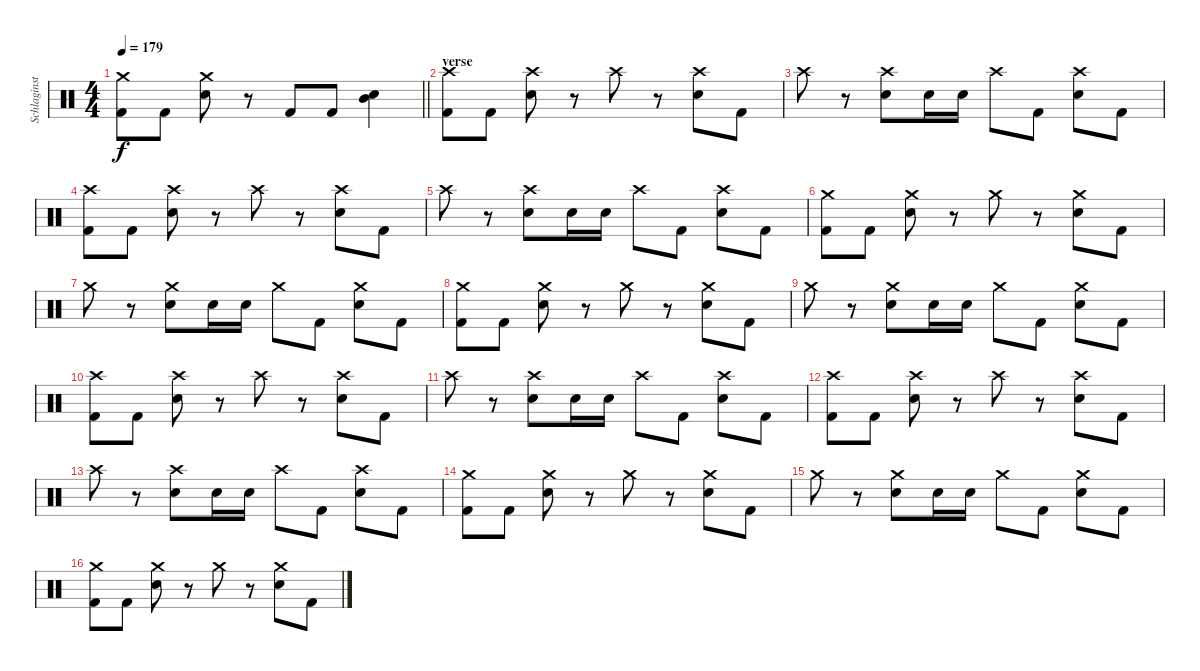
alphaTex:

\track ("Schlaginstrumente - Auswahl" "Schlaginst") {instrument percussion}
\staff {score}
\articulation defaults
\ts (4 4)
\tempo 179
\clef neutral
\barLineRight lightlight
\ks c
("Kick (hit) 2" "Crash medium (hit)").8{dy f} "Kick (hit) 2".8 ("Crash medium (hit)" "Electric Snare (hit)").8 r.8 "Kick (hit) 2".8 "Kick (hit) 2".8 ("Mid Tom (hit)" "Electric Snare (hit)").4 |
\section ("" "verse")
("Crash high (hit)" "Kick (hit) 2").8 "Kick (hit) 2".8 ("Crash high (hit)" "Electric Snare (hit)").8 r.8 "Crash high (hit)".8 r.8 ("Crash high (hit)" "Electric Snare (hit)").8 "Kick (hit) 2".8 |
"Crash high (hit)".8 r.8 ("Crash high (hit)" "Electric Snare (hit)").8 "Electric Snare (hit)".16 "Electric Snare (hit)".16 "Crash high (hit)".8 "Kick (hit) 2".8 ("Crash high (hit)" "Electric Snare (hit)").8 "Kick (hit) 2".8 |
("Crash high (hit)" "Kick (hit) 2").8 "Kick (hit) 2".8 ("Crash high (hit)" "Electric Snare (hit)").8 r.8 "Crash high (hit)".8 r.8 ("Crash high (hit)" "Electric Snare (hit)").8 "Kick (hit) 2".8 |
"Crash high (hit)".8 r.8 ("Crash high (hit)" "Electric Snare (hit)").8 "Electric Snare (hit)".16 "Electric Snare (hit)".16 "Crash high (hit)".8 "Kick (hit) 2".8 ("Crash high (hit)" "Electric Snare (hit)").8 "Kick (hit) 2".8 |
("Crash medium (hit)" "Kick (hit) 2").8 "Kick (hit) 2".8 ("Crash medium (hit)" "Electric Snare (hit)").8 r.8 "Crash medium (hit)".8 r.8 ("Crash medium (hit)" "Electric Snare (hit)").8 "Kick (hit) 2".8 |
"Crash medium (hit)".8 r.8 ("Crash medium (hit)" "Electric Snare (hit)").8 "Electric Snare (hit)".16 "Electric Snare (hit)".16 "Crash medium (hit)".8 "Kick (hit) 2".8 ("Crash medium (hit)" "Electric Snare (hit)").8 "Kick (hit) 2".8 |
("Crash medium (hit)" "Kick (hit) 2").8 "Kick (hit) 2".8 ("Crash medium (hit)" "Electric Snare (hit)").8 r.8 "Crash medium (hit)".8 r.8 ("Crash medium (hit)" "Electric Snare (hit)").8 "Kick (hit) 2".8 |
"Crash medium (hit)".8 r.8 ("Crash medium (hit)" "Electric Snare (hit)").8 "Electric Snare (hit)".16 "Electric Snare (hit)".16 "Crash medium (hit)".8 "Kick (hit) 2".8 ("Crash medium (hit)" "Electric Snare (hit)").8 "Kick (hit) 2".8 |
("Crash high (hit)" "Kick (hit) 2").8 "Kick (hit) 2".8 ("Crash high (hit)" "Electric Snare (hit)").8 r.8 "Crash high (hit)".8 r.8 ("Crash high (hit)" "Electric Snare (hit)").8 "Kick (hit) 2".8 |
"Crash high (hit)".8 r.8 ("Crash high (hit)" "Electric Snare (hit)").8 "Electric Snare (hit)".16 "Electric Snare (hit)".16 "Crash high (hit)".8 "Kick (hit) 2".8 ("Crash high (hit)" "Electric Snare (hit)").8 "Kick (hit) 2".8 |
("Crash high (hit)" "Kick (hit) 2").8 "Kick (hit) 2".8 ("Crash high (hit)" "Electric Snare (hit)").8 r.8 "Crash high (hit)".8 r.8 ("Crash high (hit)" "Electric Snare (hit)").8 "Kick (hit) 2".8 |
"Crash high (hit)".8 r.8 ("Crash high (hit)" "Electric Snare (hit)").8 "Electric Snare (hit)".16 "Electric Snare (hit)".16 "Crash high (hit)".8 "Kick (hit) 2".8 ("Crash high (hit)" "Electric Snare (hit)").8 "Kick (hit) 2".8 |
("Crash medium (hit)" "Kick (hit) 2").8 "Kick (hit) 2".8 ("Crash medium (hit)" "Electric Snare (hit)").8 r.8 "Crash medium (hit)".8 r.8 ("Crash medium (hit)" "Electric Snare (hit)").8 "Kick (hit) 2".8 |
"Crash medium (hit)".8 r.8 ("Crash medium (hit)" "Electric Snare (hit)").8 "Electric Snare (hit)".16 "Electric Snare (hit)".16 "Crash medium (hit)".8 "Kick (hit) 2".8 ("Crash medium (hit)" "Electric Snare (hit)").8 "Kick (hit) 2".8 |
("Crash medium (hit)" "Kick (hit) 2").8 "Kick (hit) 2".8 ("Crash medium (hit)" "Electric Snare (hit)").8 r.8 "Crash medium (hit)".8 r.8 ("Crash medium (hit)" "Electric Snare (hit)").8 "Kick (hit) 2".8
